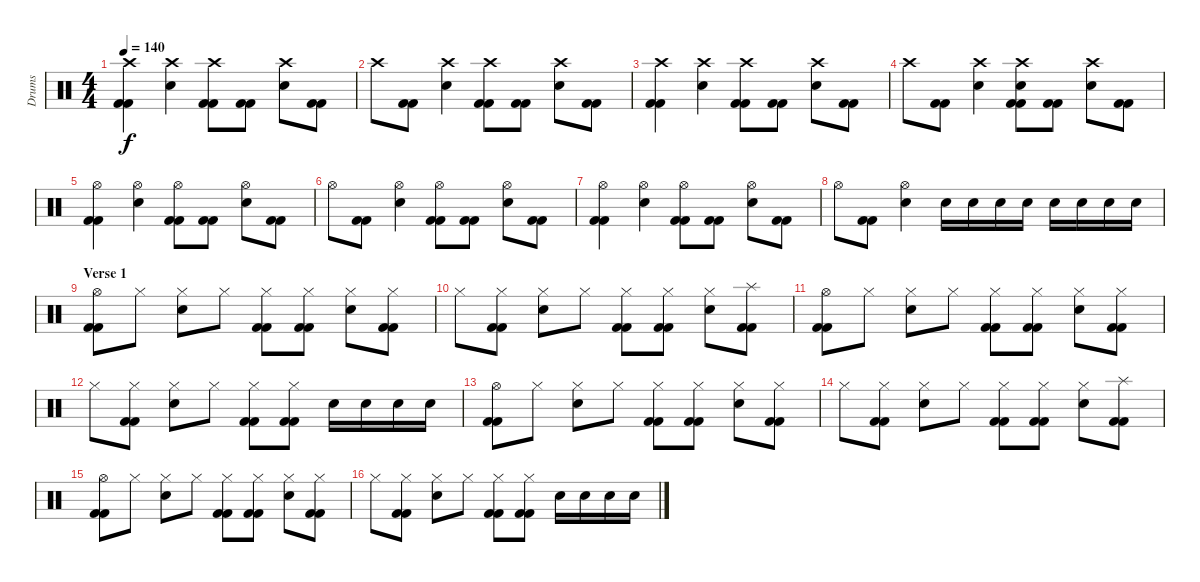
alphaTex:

\track ("Drums" "Drums") {instrument percussion}
\staff {score}
\articulation defaults
\ts (4 4)
\tempo 140
\clef neutral
\ks c
("Crash high (hit)" "Kick (hit) 2" "Kick (hit) 2").4{dy f} ("Crash high (hit)" "Electric Snare (hit)").4 ("Crash high (hit)" "Kick (hit) 2" "Kick (hit) 2").8 ("Kick (hit) 2" "Kick (hit) 2").8 ("Crash high (hit)" "Electric Snare (hit)").8 ("Kick (hit) 2" "Kick (hit) 2").8 |
"Crash high (hit)".8 ("Kick (hit) 2" "Kick (hit) 2").8 ("Crash high (hit)" "Electric Snare (hit)").4 ("Crash high (hit)" "Kick (hit) 2" "Kick (hit) 2").8 ("Kick (hit) 2" "Kick (hit) 2").8 ("Crash high (hit)" "Electric Snare (hit)").8 ("Kick (hit) 2" "Kick (hit) 2").8 |
("Crash high (hit)" "Kick (hit) 2" "Kick (hit) 2").4 ("Crash high (hit)" "Electric Snare (hit)").4 ("Crash high (hit)" "Kick (hit) 2" "Kick (hit) 2").8 ("Kick (hit) 2" "Kick (hit) 2").8 ("Crash high (hit)" "Electric Snare (hit)").8 ("Kick (hit) 2" "Kick (hit) 2").8 |
"Crash high (hit)".8 ("Kick (hit) 2" "Kick (hit) 2").8 ("Crash high (hit)" "Electric Snare (hit)").4 ("Crash high (hit)" "Kick (hit) 2" "Electric Snare (hit)" "Kick (hit) 2").8 ("Kick (hit) 2" "Kick (hit) 2").8 ("Crash high (hit)" "Electric Snare (hit)").8 ("Kick (hit) 2" "Kick (hit) 2").8 |
("Hi-Hat (open)" "Kick (hit) 2" "Kick (hit) 2").4 ("Hi-Hat (open)" "Electric Snare (hit)").4 ("Hi-Hat (open)" "Kick (hit) 2" "Kick (hit) 2").8 ("Kick (hit) 2" "Kick (hit) 2").8 ("Hi-Hat (open)" "Electric Snare (hit)").8 ("Kick (hit) 2" "Kick (hit) 2").8 |
"Hi-Hat (open)".8 ("Kick (hit) 2" "Kick (hit) 2").8 ("Hi-Hat (open)" "Electric Snare (hit)").4 ("Hi-Hat (open)" "Kick (hit) 2" "Kick (hit) 2").8 ("Kick (hit) 2" "Kick (hit) 2").8 ("Hi-Hat (open)" "Electric Snare (hit)").8 ("Kick (hit) 2" "Kick (hit) 2").8 |
("Hi-Hat (open)" "Kick (hit) 2" "Kick (hit) 2").4 ("Hi-Hat (open)" "Electric Snare (hit)").4 ("Hi-Hat (open)" "Kick (hit) 2" "Kick (hit) 2").8 ("Kick (hit) 2" "Kick (hit) 2").8 ("Hi-Hat (open)" "Electric Snare (hit)").8 ("Kick (hit) 2" "Kick (hit) 2").8 |
"Hi-Hat (open)".8 ("Kick (hit) 2" "Kick (hit) 2").8 ("Hi-Hat (open)" "Electric Snare (hit)").4 "Electric Snare (hit)".16 "Electric Snare (hit)".16 "Electric Snare (hit)".16 "Electric Snare (hit)".16 "Electric Snare (hit)".16 "Electric Snare (hit)".16 "Electric Snare (hit)".16 "Electric Snare (hit)".16 |
\section ("" "Verse 1")
("Hi-Hat (open)" "Kick (hit) 2" "Kick (hit) 2").8 "Hi-Hat (closed)".8 ("Hi-Hat (closed)" "Electric Snare (hit)").8 "Hi-Hat (closed)".8 ("Hi-Hat (closed)" "Kick (hit) 2" "Kick (hit) 2").8 ("Hi-Hat (closed)" "Kick (hit) 2" "Kick (hit) 2").8 ("Hi-Hat (closed)" "Electric Snare (hit)").8 ("Hi-Hat (closed)" "Kick (hit) 2" "Kick (hit) 2").8 |
"Hi-Hat (closed)".8 ("Hi-Hat (closed)" "Kick (hit) 2" "Kick (hit) 2").8 ("Hi-Hat (closed)" "Electric Snare (hit)").8 "Hi-Hat (closed)".8 ("Hi-Hat (closed)" "Kick (hit) 2" "Kick (hit) 2").8 ("Hi-Hat (closed)" "Kick (hit) 2" "Kick (hit) 2").8 ("Hi-Hat (closed)" "Electric Snare (hit)").8 ("Splash (hit)" "Kick (hit) 2" "Kick (hit) 2").8 |
("Hi-Hat (open)" "Kick (hit) 2" "Kick (hit) 2").8 "Hi-Hat (closed)".8 ("Hi-Hat (closed)" "Electric Snare (hit)").8 "Hi-Hat (closed)".8 ("Hi-Hat (closed)" "Kick (hit) 2" "Kick (hit) 2").8 ("Hi-Hat (closed)" "Kick (hit) 2" "Kick (hit) 2").8 ("Hi-Hat (closed)" "Electric Snare (hit)").8 ("Hi-Hat (closed)" "Kick (hit) 2" "Kick (hit) 2").8 |
"Hi-Hat (closed)".8 ("Hi-Hat (closed)" "Kick (hit) 2" "Kick (hit) 2").8 ("Hi-Hat (closed)" "Electric Snare (hit)").8 "Hi-Hat (closed)".8 ("Hi-Hat (closed)" "Kick (hit) 2" "Kick (hit) 2").8 ("Hi-Hat (closed)" "Kick (hit) 2" "Kick (hit) 2").8 "Electric Snare (hit)".16 "Electric Snare (hit)".16 "Electric Snare (hit)".16 "Electric Snare (hit)".16 |
("Hi-Hat (open)" "Kick (hit) 2" "Kick (hit) 2").8 "Hi-Hat (closed)".8 ("Hi-Hat (closed)" "Electric Snare (hit)").8 "Hi-Hat (closed)".8 ("Hi-Hat (closed)" "Kick (hit) 2" "Kick (hit) 2").8 ("Hi-Hat (closed)" "Kick (hit) 2" "Kick (hit) 2").8 ("Hi-Hat (closed)" "Electric Snare (hit)").8 ("Hi-Hat (closed)" "Kick (hit) 2" "Kick (hit) 2").8 |
"Hi-Hat (closed)".8 ("Hi-Hat (closed)" "Kick (hit) 2" "Kick (hit) 2").8 ("Hi-Hat (closed)" "Electric Snare (hit)").8 "Hi-Hat (closed)".8 ("Hi-Hat (closed)" "Kick (hit) 2" "Kick (hit) 2").8 ("Hi-Hat (closed)" "Kick (hit) 2" "Kick (hit) 2").8 ("Hi-Hat (closed)" "Electric Snare (hit)").8 ("Splash (hit)" "Kick (hit) 2" "Kick (hit) 2").8 |
("Hi-Hat (open)" "Kick (hit) 2" "Kick (hit) 2").8 "Hi-Hat (closed)".8 ("Hi-Hat (closed)" "Electric Snare (hit)").8 "Hi-Hat (closed)".8 ("Hi-Hat (closed)" "Kick (hit) 2" "Kick (hit) 2").8 ("Hi-Hat (closed)" "Kick (hit) 2" "Kick (hit) 2").8 ("Hi-Hat (closed)" "Electric Snare (hit)").8 ("Hi-Hat (closed)" "Kick (hit) 2" "Kick (hit) 2").8 |
"Hi-Hat (closed)".8 ("Hi-Hat (closed)" "Kick (hit) 2" "Kick (hit) 2").8 ("Hi-Hat (closed)" "Electric Snare (hit)").8 "Hi-Hat (closed)".8 ("Hi-Hat (closed)" "Kick (hit) 2" "Kick (hit) 2").8 ("Hi-Hat (closed)" "Kick (hit) 2" "Kick (hit) 2").8 "Electric Snare (hit)".16 "Electric Snare (hit)".16 "Electric Snare (hit)".16 "Electric Snare (hit)".16
